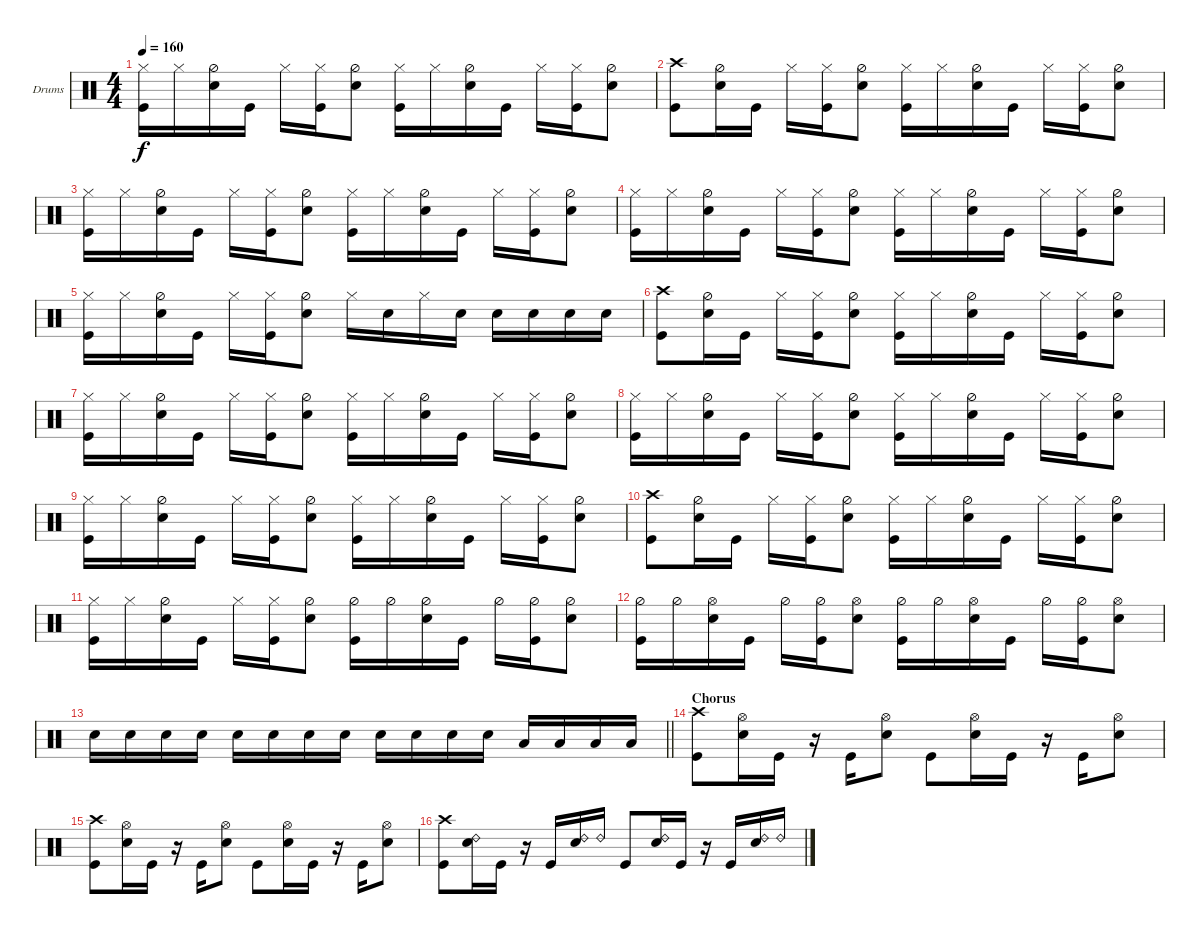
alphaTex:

\defaultSystemsLayout 4
\bracketExtendMode groupsimilarinstruments
\firstSystemTrackNameOrientation horizontal
\otherSystemsTrackNameOrientation horizontal
\track ("Drums" "Drums") {instrument percussion}
\staff {score}
\articulation defaults
\ts (4 4)
\tempo 160
\clef neutral
\ks c
("Hi-Hat (closed)" "Kick (hit)").16{dy f} "Hi-Hat (closed)".16 ("Hi-Hat (half)" "Snare (hit) 2").16 "Kick (hit)".16 "Hi-Hat (closed)".16 ("Kick (hit)" "Hi-Hat (closed)").16 ("Snare (hit) 2" "Hi-Hat (half)").8 ("Hi-Hat (closed)" "Kick (hit)").16 "Hi-Hat (closed)".16 ("Hi-Hat (half)" "Snare (hit) 2").16 "Kick (hit)".16 "Hi-Hat (closed)".16 ("Hi-Hat (closed)" "Kick (hit)").16 ("Snare (hit) 2" "Hi-Hat (half)").8 |
("Kick (hit)" "Crash high (hit)").8 ("Hi-Hat (half)" "Snare (hit) 2").16 "Kick (hit)".16 "Hi-Hat (closed)".16 ("Kick (hit)" "Hi-Hat (closed)").16 ("Snare (hit) 2" "Hi-Hat (half)").8 ("Hi-Hat (closed)" "Kick (hit)").16 "Hi-Hat (closed)".16 ("Hi-Hat (half)" "Snare (hit) 2").16 "Kick (hit)".16 "Hi-Hat (closed)".16 ("Hi-Hat (closed)" "Kick (hit)").16 ("Snare (hit) 2" "Hi-Hat (half)").8 |
("Hi-Hat (closed)" "Kick (hit)").16 "Hi-Hat (closed)".16 ("Hi-Hat (half)" "Snare (hit) 2").16 "Kick (hit)".16 "Hi-Hat (closed)".16 ("Kick (hit)" "Hi-Hat (closed)").16 ("Snare (hit) 2" "Hi-Hat (half)").8 ("Hi-Hat (closed)" "Kick (hit)").16 "Hi-Hat (closed)".16 ("Hi-Hat (half)" "Snare (hit) 2").16 "Kick (hit)".16 "Hi-Hat (closed)".16 ("Hi-Hat (closed)" "Kick (hit)").16 ("Snare (hit) 2" "Hi-Hat (half)").8 |
("Hi-Hat (closed)" "Kick (hit)").16 "Hi-Hat (closed)".16 ("Hi-Hat (half)" "Snare (hit) 2").16 "Kick (hit)".16 "Hi-Hat (closed)".16 ("Kick (hit)" "Hi-Hat (closed)").16 ("Snare (hit) 2" "Hi-Hat (half)").8 ("Hi-Hat (closed)" "Kick (hit)").16 "Hi-Hat (closed)".16 ("Hi-Hat (half)" "Snare (hit) 2").16 "Kick (hit)".16 "Hi-Hat (closed)".16 ("Hi-Hat (closed)" "Kick (hit)").16 ("Snare (hit) 2" "Hi-Hat (half)").8 |
("Hi-Hat (closed)" "Kick (hit)").16 "Hi-Hat (closed)".16 ("Hi-Hat (half)" "Snare (hit) 2").16 "Kick (hit)".16 "Hi-Hat (closed)".16 ("Kick (hit)" "Hi-Hat (closed)").16 ("Snare (hit) 2" "Hi-Hat (half)").8 "Hi-Hat (closed)".16 "Snare (hit) 2".16 "Hi-Hat (closed)".16 "Snare (hit) 2".16 "Snare (hit) 2".16 "Snare (hit) 2".16 "Snare (hit) 2".16 "Snare (hit) 2".16 |
("Kick (hit)" "Crash high (hit)").8 ("Hi-Hat (half)" "Snare (hit) 2").16 "Kick (hit)".16 "Hi-Hat (closed)".16 ("Kick (hit)" "Hi-Hat (closed)").16 ("Snare (hit) 2" "Hi-Hat (half)").8 ("Hi-Hat (closed)" "Kick (hit)").16 "Hi-Hat (closed)".16 ("Hi-Hat (half)" "Snare (hit) 2").16 "Kick (hit)".16 "Hi-Hat (closed)".16 ("Hi-Hat (closed)" "Kick (hit)").16 ("Snare (hit) 2" "Hi-Hat (half)").8 |
("Hi-Hat (closed)" "Kick (hit)").16 "Hi-Hat (closed)".16 ("Hi-Hat (half)" "Snare (hit) 2").16 "Kick (hit)".16 "Hi-Hat (closed)".16 ("Kick (hit)" "Hi-Hat (closed)").16 ("Snare (hit) 2" "Hi-Hat (half)").8 ("Hi-Hat (closed)" "Kick (hit)").16 "Hi-Hat (closed)".16 ("Hi-Hat (half)" "Snare (hit) 2").16 "Kick (hit)".16 "Hi-Hat (closed)".16 ("Hi-Hat (closed)" "Kick (hit)").16 ("Snare (hit) 2" "Hi-Hat (half)").8 |
("Hi-Hat (closed)" "Kick (hit)").16 "Hi-Hat (closed)".16 ("Hi-Hat (half)" "Snare (hit) 2").16 "Kick (hit)".16 "Hi-Hat (closed)".16 ("Kick (hit)" "Hi-Hat (closed)").16 ("Snare (hit) 2" "Hi-Hat (half)").8 ("Hi-Hat (closed)" "Kick (hit)").16 "Hi-Hat (closed)".16 ("Hi-Hat (half)" "Snare (hit) 2").16 "Kick (hit)".16 "Hi-Hat (closed)".16 ("Hi-Hat (closed)" "Kick (hit)").16 ("Snare (hit) 2" "Hi-Hat (half)").8 |
("Hi-Hat (closed)" "Kick (hit)").16 "Hi-Hat (closed)".16 ("Hi-Hat (half)" "Snare (hit) 2").16 "Kick (hit)".16 "Hi-Hat (closed)".16 ("Kick (hit)" "Hi-Hat (closed)").16 ("Snare (hit) 2" "Hi-Hat (half)").8 ("Hi-Hat (closed)" "Kick (hit)").16 "Hi-Hat (closed)".16 ("Hi-Hat (half)" "Snare (hit) 2").16 "Kick (hit)".16 "Hi-Hat (closed)".16 ("Hi-Hat (closed)" "Kick (hit)").16 ("Snare (hit) 2" "Hi-Hat (half)").8 |
("Kick (hit)" "Crash high (hit)").8 ("Hi-Hat (half)" "Snare (hit) 2").16 "Kick (hit)".16 "Hi-Hat (closed)".16 ("Kick (hit)" "Hi-Hat (closed)").16 ("Snare (hit) 2" "Hi-Hat (half)").8 ("Hi-Hat (closed)" "Kick (hit)").16 "Hi-Hat (closed)".16 ("Hi-Hat (half)" "Snare (hit) 2").16 "Kick (hit)".16 "Hi-Hat (closed)".16 ("Hi-Hat (closed)" "Kick (hit)").16 ("Snare (hit) 2" "Hi-Hat (half)").8 |
("Hi-Hat (closed)" "Kick (hit)").16 "Hi-Hat (closed)".16 ("Hi-Hat (half)" "Snare (hit) 2").16 "Kick (hit)".16 "Hi-Hat (closed)".16 ("Kick (hit)" "Hi-Hat (closed)").16 ("Snare (hit) 2" "Hi-Hat (half)").8 ("Hi-Hat (half)" "Kick (hit)").16 "Hi-Hat (half)".16 ("Hi-Hat (half)" "Snare (hit) 2").16 "Kick (hit)".16 "Hi-Hat (half)".16 ("Hi-Hat (half)" "Kick (hit)").16 ("Snare (hit) 2" "Hi-Hat (half)").8 |
("Hi-Hat (half)" "Kick (hit)").16 "Hi-Hat (half)".16 ("Hi-Hat (open)" "Snare (hit) 2").16 "Kick (hit)".16 "Hi-Hat (half)".16 ("Kick (hit)" "Hi-Hat (half)").16 ("Snare (hit) 2" "Hi-Hat (open)").8 ("Hi-Hat (half)" "Kick (hit)").16 "Hi-Hat (half)".16 ("Hi-Hat (open)" "Snare (hit) 2").16 "Kick (hit)".16 "Hi-Hat (half)".16 ("Hi-Hat (half)" "Kick (hit)").16 ("Snare (hit) 2" "Hi-Hat (open)").8 |
\barLineRight lightlight "Snare (hit) 2".16 "Snare (hit) 2".16 "Snare (hit) 2".16 "Snare (hit) 2".16 "Snare (hit) 2".16 "Snare (hit) 2".16 "Snare (hit) 2".16 "Snare (hit) 2".16 "Snare (hit) 2".16 "Snare (hit) 2".16 "Snare (hit) 2".16 "Snare (hit) 2".16 "Low Tom (hit)".16 "Low Tom (hit)".16 "Low Tom (hit)".16 "Low Tom (hit)".16
|
\section ("" "Chorus")
("Kick (hit)" "Crash high (hit)").8 ("Snare (hit) 2" "Hi-Hat (open)").16 "Kick (hit)".16 r.16 "Kick (hit)".16 ("Snare (hit) 2" "Hi-Hat (open)").8 "Kick (hit)".8 ("Snare (hit) 2" "Hi-Hat (open)").16 "Kick (hit)".16 r.16 "Kick (hit)".16 ("Snare (hit) 2" "Hi-Hat (open)").8 |
("Kick (hit)" "Crash high (hit)").8 ("Snare (hit) 2" "Hi-Hat (open)").16 "Kick (hit)".16 r.16 "Kick (hit)".16 ("Snare (hit) 2" "Hi-Hat (open)").8 "Kick (hit)".8 ("Snare (hit) 2" "Hi-Hat (open)").16 "Kick (hit)".16 r.16 "Kick (hit)".16 ("Snare (hit) 2" "Hi-Hat (open)").8 |
("Kick (hit)" "Crash high (hit)").8 ("Ride (bell) 2" "Snare (hit) 2").16 "Kick (hit)".16 r.16 "Kick (hit)".16 ("Ride (bell) 2" "Snare (hit) 2").16 "Ride (bell) 2".16 "Kick (hit)".8 ("Ride (bell) 2" "Snare (hit) 2").16 "Kick (hit)".16 r.16 "Kick (hit)".16 ("Ride (bell) 2" "Snare (hit) 2").16 "Ride (bell) 2".16
